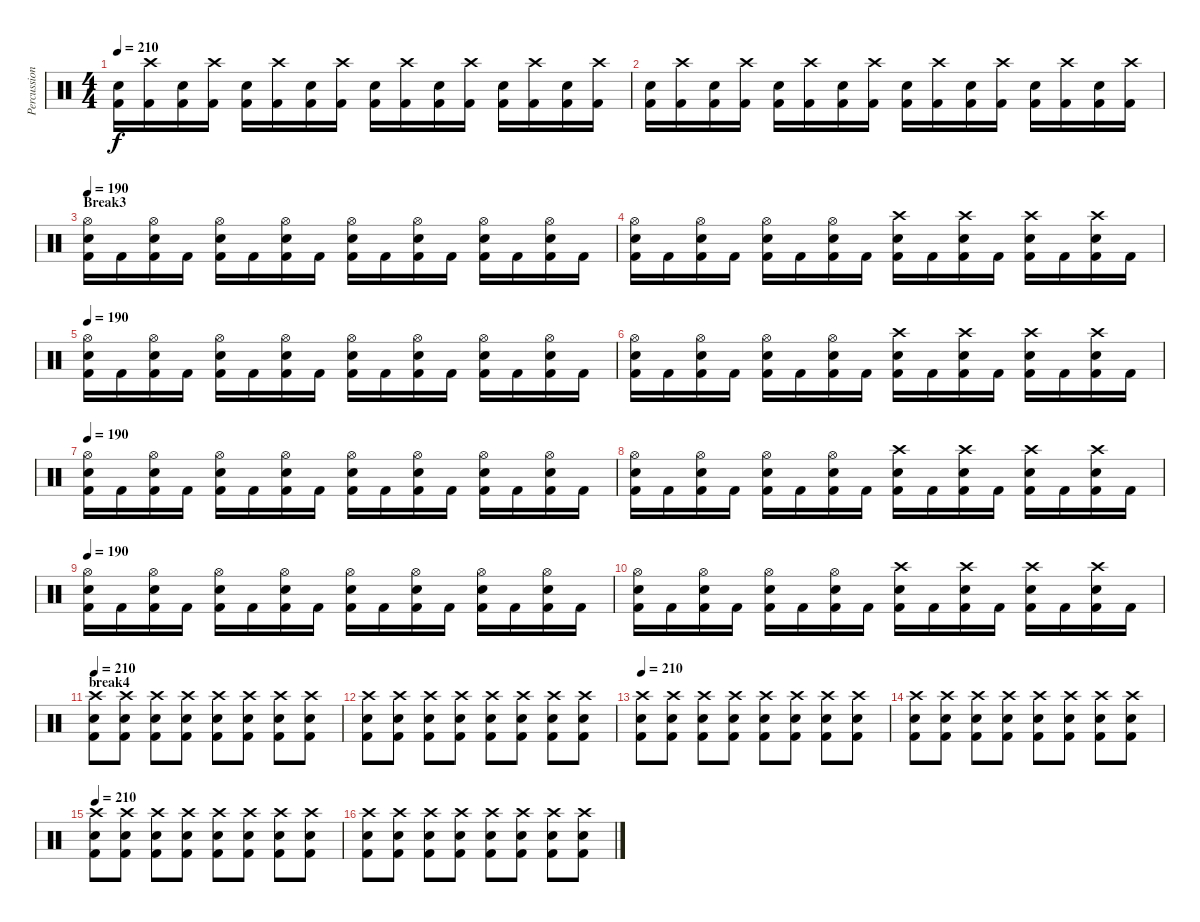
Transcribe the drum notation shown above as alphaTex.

\track ("Percussion" "Percussion") {instrument percussion}
\staff {score}
\articulation defaults
\ts (4 4)
\tempo 210
\clef neutral
\ks c
("Snare (hit) 2" "Kick (hit) 2").16{dy f} ("Crash high (hit)" "Kick (hit) 2").16 ("Snare (hit) 2" "Kick (hit) 2").16 ("Crash high (hit)" "Kick (hit) 2").16 ("Snare (hit) 2" "Kick (hit) 2").16 ("Crash high (hit)" "Kick (hit) 2").16 ("Snare (hit) 2" "Kick (hit) 2").16 ("Crash high (hit)" "Kick (hit) 2").16 ("Snare (hit) 2" "Kick (hit) 2").16 ("Crash high (hit)" "Kick (hit) 2").16 ("Snare (hit) 2" "Kick (hit) 2").16 ("Crash high (hit)" "Kick (hit) 2").16 ("Snare (hit) 2" "Kick (hit) 2").16 ("Crash high (hit)" "Kick (hit) 2").16 ("Snare (hit) 2" "Kick (hit) 2").16 ("Crash high (hit)" "Kick (hit) 2").16 |
("Snare (hit) 2" "Kick (hit) 2").16 ("Crash high (hit)" "Kick (hit) 2").16 ("Snare (hit) 2" "Kick (hit) 2").16 ("Crash high (hit)" "Kick (hit) 2").16 ("Snare (hit) 2" "Kick (hit) 2").16 ("Crash high (hit)" "Kick (hit) 2").16 ("Snare (hit) 2" "Kick (hit) 2").16 ("Crash high (hit)" "Kick (hit) 2").16 ("Snare (hit) 2" "Kick (hit) 2").16 ("Crash high (hit)" "Kick (hit) 2").16 ("Snare (hit) 2" "Kick (hit) 2").16 ("Crash high (hit)" "Kick (hit) 2").16 ("Snare (hit) 2" "Kick (hit) 2").16 ("Crash high (hit)" "Kick (hit) 2").16 ("Snare (hit) 2" "Kick (hit) 2").16 ("Crash high (hit)" "Kick (hit) 2").16 |
\section ("" "Break3")
\tempo 190
("Hi-Hat (open)" "Snare (hit) 2" "Kick (hit) 2").16 "Kick (hit) 2".16 ("Hi-Hat (open)" "Snare (hit) 2" "Kick (hit) 2").16 "Kick (hit) 2".16 ("Hi-Hat (open)" "Snare (hit) 2" "Kick (hit) 2").16 "Kick (hit) 2".16 ("Hi-Hat (open)" "Snare (hit) 2" "Kick (hit) 2").16 "Kick (hit) 2".16 ("Hi-Hat (open)" "Snare (hit) 2" "Kick (hit) 2").16 "Kick (hit) 2".16 ("Hi-Hat (open)" "Snare (hit) 2" "Kick (hit) 2").16 "Kick (hit) 2".16 ("Hi-Hat (open)" "Snare (hit) 2" "Kick (hit) 2").16 "Kick (hit) 2".16 ("Hi-Hat (open)" "Snare (hit) 2" "Kick (hit) 2").16 "Kick (hit) 2".16 |
("Hi-Hat (open)" "Snare (hit) 2" "Kick (hit) 2").16 "Kick (hit) 2".16 ("Hi-Hat (open)" "Snare (hit) 2" "Kick (hit) 2").16 "Kick (hit) 2".16 ("Hi-Hat (open)" "Snare (hit) 2" "Kick (hit) 2").16 "Kick (hit) 2".16 ("Hi-Hat (open)" "Snare (hit) 2" "Kick (hit) 2").16 "Kick (hit) 2".16 ("Crash high (hit)" "Snare (hit) 2" "Kick (hit) 2").16 "Kick (hit) 2".16 ("Crash high (hit)" "Snare (hit) 2" "Kick (hit) 2").16 "Kick (hit) 2".16 ("Crash high (hit)" "Snare (hit) 2" "Kick (hit) 2").16 "Kick (hit) 2".16 ("Crash high (hit)" "Snare (hit) 2" "Kick (hit) 2").16 "Kick (hit) 2".16 |
\tempo 190
("Hi-Hat (open)" "Snare (hit) 2" "Kick (hit) 2").16 "Kick (hit) 2".16 ("Hi-Hat (open)" "Snare (hit) 2" "Kick (hit) 2").16 "Kick (hit) 2".16 ("Hi-Hat (open)" "Snare (hit) 2" "Kick (hit) 2").16 "Kick (hit) 2".16 ("Hi-Hat (open)" "Snare (hit) 2" "Kick (hit) 2").16 "Kick (hit) 2".16 ("Hi-Hat (open)" "Snare (hit) 2" "Kick (hit) 2").16 "Kick (hit) 2".16 ("Hi-Hat (open)" "Snare (hit) 2" "Kick (hit) 2").16 "Kick (hit) 2".16 ("Hi-Hat (open)" "Snare (hit) 2" "Kick (hit) 2").16 "Kick (hit) 2".16 ("Hi-Hat (open)" "Snare (hit) 2" "Kick (hit) 2").16 "Kick (hit) 2".16 |
("Hi-Hat (open)" "Snare (hit) 2" "Kick (hit) 2").16 "Kick (hit) 2".16 ("Hi-Hat (open)" "Snare (hit) 2" "Kick (hit) 2").16 "Kick (hit) 2".16 ("Hi-Hat (open)" "Snare (hit) 2" "Kick (hit) 2").16 "Kick (hit) 2".16 ("Hi-Hat (open)" "Snare (hit) 2" "Kick (hit) 2").16 "Kick (hit) 2".16 ("Crash high (hit)" "Snare (hit) 2" "Kick (hit) 2").16 "Kick (hit) 2".16 ("Crash high (hit)" "Snare (hit) 2" "Kick (hit) 2").16 "Kick (hit) 2".16 ("Crash high (hit)" "Snare (hit) 2" "Kick (hit) 2").16 "Kick (hit) 2".16 ("Crash high (hit)" "Snare (hit) 2" "Kick (hit) 2").16 "Kick (hit) 2".16 |
\tempo 190
("Hi-Hat (open)" "Snare (hit) 2" "Kick (hit) 2").16 "Kick (hit) 2".16 ("Hi-Hat (open)" "Snare (hit) 2" "Kick (hit) 2").16 "Kick (hit) 2".16 ("Hi-Hat (open)" "Snare (hit) 2" "Kick (hit) 2").16 "Kick (hit) 2".16 ("Hi-Hat (open)" "Snare (hit) 2" "Kick (hit) 2").16 "Kick (hit) 2".16 ("Hi-Hat (open)" "Snare (hit) 2" "Kick (hit) 2").16 "Kick (hit) 2".16 ("Hi-Hat (open)" "Snare (hit) 2" "Kick (hit) 2").16 "Kick (hit) 2".16 ("Hi-Hat (open)" "Snare (hit) 2" "Kick (hit) 2").16 "Kick (hit) 2".16 ("Hi-Hat (open)" "Snare (hit) 2" "Kick (hit) 2").16 "Kick (hit) 2".16 |
("Hi-Hat (open)" "Snare (hit) 2" "Kick (hit) 2").16 "Kick (hit) 2".16 ("Hi-Hat (open)" "Snare (hit) 2" "Kick (hit) 2").16 "Kick (hit) 2".16 ("Hi-Hat (open)" "Snare (hit) 2" "Kick (hit) 2").16 "Kick (hit) 2".16 ("Hi-Hat (open)" "Snare (hit) 2" "Kick (hit) 2").16 "Kick (hit) 2".16 ("Crash high (hit)" "Snare (hit) 2" "Kick (hit) 2").16 "Kick (hit) 2".16 ("Crash high (hit)" "Snare (hit) 2" "Kick (hit) 2").16 "Kick (hit) 2".16 ("Crash high (hit)" "Snare (hit) 2" "Kick (hit) 2").16 "Kick (hit) 2".16 ("Crash high (hit)" "Snare (hit) 2" "Kick (hit) 2").16 "Kick (hit) 2".16 |
\tempo 190
("Hi-Hat (open)" "Snare (hit) 2" "Kick (hit) 2").16 "Kick (hit) 2".16 ("Hi-Hat (open)" "Snare (hit) 2" "Kick (hit) 2").16 "Kick (hit) 2".16 ("Hi-Hat (open)" "Snare (hit) 2" "Kick (hit) 2").16 "Kick (hit) 2".16 ("Hi-Hat (open)" "Snare (hit) 2" "Kick (hit) 2").16 "Kick (hit) 2".16 ("Hi-Hat (open)" "Snare (hit) 2" "Kick (hit) 2").16 "Kick (hit) 2".16 ("Hi-Hat (open)" "Snare (hit) 2" "Kick (hit) 2").16 "Kick (hit) 2".16 ("Hi-Hat (open)" "Snare (hit) 2" "Kick (hit) 2").16 "Kick (hit) 2".16 ("Hi-Hat (open)" "Snare (hit) 2" "Kick (hit) 2").16 "Kick (hit) 2".16 |
("Hi-Hat (open)" "Snare (hit) 2" "Kick (hit) 2").16 "Kick (hit) 2".16 ("Hi-Hat (open)" "Snare (hit) 2" "Kick (hit) 2").16 "Kick (hit) 2".16 ("Hi-Hat (open)" "Snare (hit) 2" "Kick (hit) 2").16 "Kick (hit) 2".16 ("Hi-Hat (open)" "Snare (hit) 2" "Kick (hit) 2").16 "Kick (hit) 2".16 ("Crash high (hit)" "Snare (hit) 2" "Kick (hit) 2").16 "Kick (hit) 2".16 ("Crash high (hit)" "Snare (hit) 2" "Kick (hit) 2").16 "Kick (hit) 2".16 ("Crash high (hit)" "Snare (hit) 2" "Kick (hit) 2").16 "Kick (hit) 2".16 ("Crash high (hit)" "Snare (hit) 2" "Kick (hit) 2").16 "Kick (hit) 2".16 |
\section ("" "break4")
\tempo 210
("Crash high (hit)" "Snare (hit) 2" "Kick (hit) 2").8 ("Crash high (hit)" "Snare (hit) 2" "Kick (hit) 2").8 ("Crash high (hit)" "Snare (hit) 2" "Kick (hit) 2").8 ("Crash high (hit)" "Snare (hit) 2" "Kick (hit) 2").8 ("Crash high (hit)" "Snare (hit) 2" "Kick (hit) 2").8 ("Crash high (hit)" "Snare (hit) 2" "Kick (hit) 2").8 ("Crash high (hit)" "Snare (hit) 2" "Kick (hit) 2").8 ("Crash high (hit)" "Snare (hit) 2" "Kick (hit) 2").8 |
("Crash high (hit)" "Snare (hit) 2" "Kick (hit) 2").8 ("Crash high (hit)" "Snare (hit) 2" "Kick (hit) 2").8 ("Crash high (hit)" "Snare (hit) 2" "Kick (hit) 2").8 ("Crash high (hit)" "Snare (hit) 2" "Kick (hit) 2").8 ("Crash high (hit)" "Snare (hit) 2" "Kick (hit) 2").8 ("Crash high (hit)" "Snare (hit) 2" "Kick (hit) 2").8 ("Crash high (hit)" "Snare (hit) 2" "Kick (hit) 2").8 ("Crash high (hit)" "Snare (hit) 2" "Kick (hit) 2").8 |
\tempo 210
("Crash high (hit)" "Snare (hit) 2" "Kick (hit) 2").8 ("Crash high (hit)" "Snare (hit) 2" "Kick (hit) 2").8 ("Crash high (hit)" "Snare (hit) 2" "Kick (hit) 2").8 ("Crash high (hit)" "Snare (hit) 2" "Kick (hit) 2").8 ("Crash high (hit)" "Snare (hit) 2" "Kick (hit) 2").8 ("Crash high (hit)" "Snare (hit) 2" "Kick (hit) 2").8 ("Crash high (hit)" "Snare (hit) 2" "Kick (hit) 2").8 ("Crash high (hit)" "Snare (hit) 2" "Kick (hit) 2").8 |
("Crash high (hit)" "Snare (hit) 2" "Kick (hit) 2").8 ("Crash high (hit)" "Snare (hit) 2" "Kick (hit) 2").8 ("Crash high (hit)" "Snare (hit) 2" "Kick (hit) 2").8 ("Crash high (hit)" "Snare (hit) 2" "Kick (hit) 2").8 ("Crash high (hit)" "Snare (hit) 2" "Kick (hit) 2").8 ("Crash high (hit)" "Snare (hit) 2" "Kick (hit) 2").8 ("Crash high (hit)" "Snare (hit) 2" "Kick (hit) 2").8 ("Crash high (hit)" "Snare (hit) 2" "Kick (hit) 2").8 |
\tempo 210
("Crash high (hit)" "Snare (hit) 2" "Kick (hit) 2").8 ("Crash high (hit)" "Snare (hit) 2" "Kick (hit) 2").8 ("Crash high (hit)" "Snare (hit) 2" "Kick (hit) 2").8 ("Crash high (hit)" "Snare (hit) 2" "Kick (hit) 2").8 ("Crash high (hit)" "Snare (hit) 2" "Kick (hit) 2").8 ("Crash high (hit)" "Snare (hit) 2" "Kick (hit) 2").8 ("Crash high (hit)" "Snare (hit) 2" "Kick (hit) 2").8 ("Crash high (hit)" "Snare (hit) 2" "Kick (hit) 2").8 |
("Crash high (hit)" "Snare (hit) 2" "Kick (hit) 2").8 ("Crash high (hit)" "Snare (hit) 2" "Kick (hit) 2").8 ("Crash high (hit)" "Snare (hit) 2" "Kick (hit) 2").8 ("Crash high (hit)" "Snare (hit) 2" "Kick (hit) 2").8 ("Crash high (hit)" "Snare (hit) 2" "Kick (hit) 2").8 ("Crash high (hit)" "Snare (hit) 2" "Kick (hit) 2").8 ("Crash high (hit)" "Snare (hit) 2" "Kick (hit) 2").8 ("Crash high (hit)" "Snare (hit) 2" "Kick (hit) 2").8
